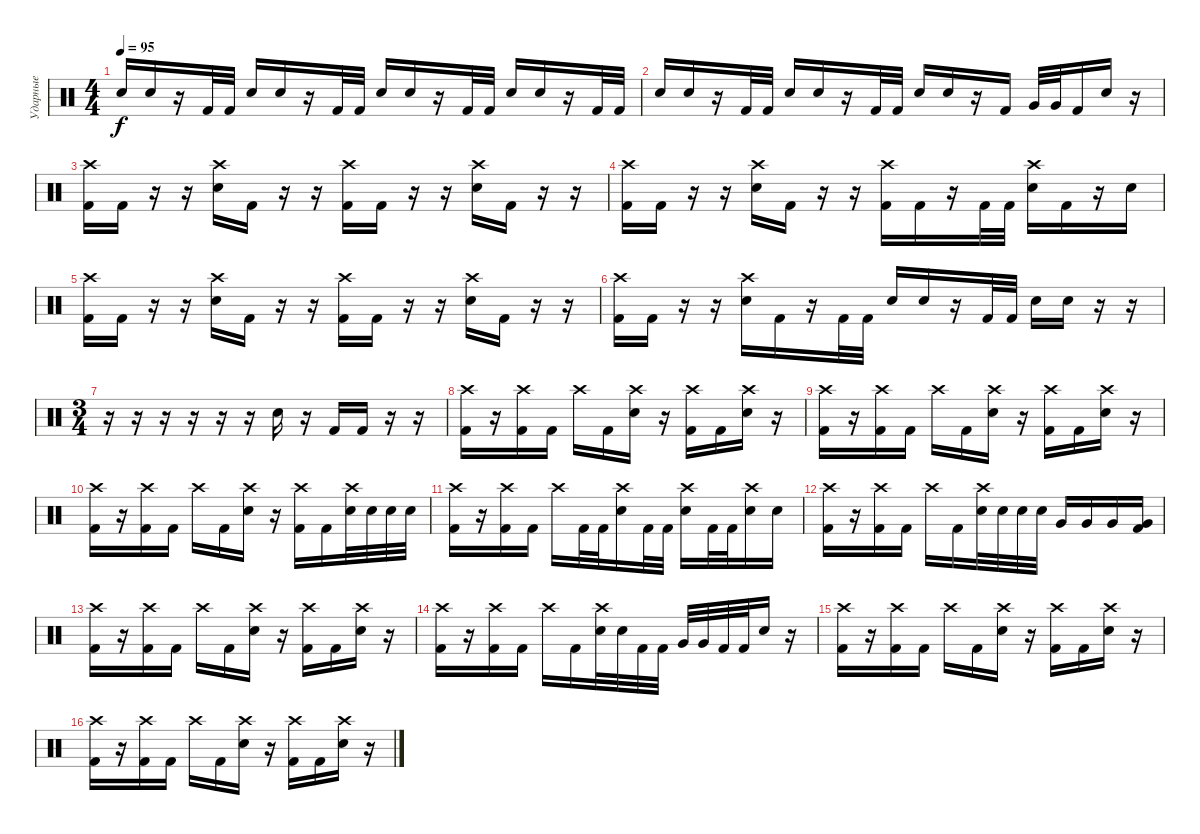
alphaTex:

\track ("Ударные" "Ударные") {instrument percussion}
\staff {score}
\articulation defaults
\ts (4 4)
\tempo 95
\clef neutral
\ks c "Electric Snare (hit)".16{dy f} "Electric Snare (hit)".16
r.16 "Kick (hit) 2".32 "Kick (hit) 2".32 "Electric Snare (hit)".16 "Electric Snare (hit)".16 r.16 "Kick (hit) 2".32 "Kick (hit) 2".32 "Electric Snare (hit)".16 "Electric Snare (hit)".16 r.16 "Kick (hit) 2".32 "Kick (hit) 2".32 "Electric Snare (hit)".16 "Electric Snare (hit)".16 r.16 "Kick (hit) 2".32 "Kick (hit) 2".32 |
"Electric Snare (hit)".16 "Electric Snare (hit)".16 r.16 "Kick (hit) 2".32 "Kick (hit) 2".32 "Electric Snare (hit)".16 "Electric Snare (hit)".16 r.16 "Kick (hit) 2".32 "Kick (hit) 2".32 "Electric Snare (hit)".16 "Electric Snare (hit)".16 r.16 "Kick (hit) 2".16 "Very Low Tom (hit)".32 "Very Low Tom (hit)".32 "Kick (hit) 2".16 "Electric Snare (hit)".16 r.16 |
("Crash high (hit)" "Kick (hit) 2").16 "Kick (hit) 2".16 r.16 r.16 ("Crash high (hit)" "Electric Snare (hit)").16 "Kick (hit) 2".16 r.16 r.16 ("Crash high (hit)" "Kick (hit) 2").16 "Kick (hit) 2".16 r.16 r.16 ("Crash high (hit)" "Electric Snare (hit)").16 "Kick (hit) 2".16 r.16 r.16 |
("Crash high (hit)" "Kick (hit) 2").16 "Kick (hit) 2".16 r.16 r.16 ("Crash high (hit)" "Electric Snare (hit)").16 "Kick (hit) 2".16 r.16 r.16 ("Crash high (hit)" "Kick (hit) 2").16 "Kick (hit) 2".16 r.16 "Kick (hit) 2".32 "Kick (hit) 2".32 ("Crash high (hit)" "Electric Snare (hit)").16 "Kick (hit) 2".16 r.16 "Electric Snare (hit)".16 |
("Crash high (hit)" "Kick (hit) 2").16 "Kick (hit) 2".16 r.16 r.16 ("Crash high (hit)" "Electric Snare (hit)").16 "Kick (hit) 2".16 r.16 r.16 ("Crash high (hit)" "Kick (hit) 2").16 "Kick (hit) 2".16 r.16 r.16 ("Crash high (hit)" "Electric Snare (hit)").16 "Kick (hit) 2".16 r.16 r.16 |
("Crash high (hit)" "Kick (hit) 2").16 "Kick (hit) 2".16 r.16 r.16 ("Crash high (hit)" "Electric Snare (hit)").16 "Kick (hit) 2".16 r.16 "Kick (hit) 2".32 "Kick (hit) 2".32 "Electric Snare (hit)".16 "Electric Snare (hit)".16 r.16 "Kick (hit) 2".32 "Kick (hit) 2".32 "Electric Snare (hit)".16 "Electric Snare (hit)".16 r.16 r.16 |
\ts (3 4)
r.16 r.16 r.16 r.16 r.16 r.16 "Electric Snare (hit)".16 r.16 "Kick (hit) 2".16 "Kick (hit) 2".16 r.16 r.16 |
("Crash high (hit)" "Kick (hit) 2").16 r.16 ("Crash high (hit)" "Kick (hit) 2").16 "Kick (hit) 2".16 "Crash high (hit)".16 "Kick (hit) 2".16 ("Crash high (hit)" "Electric Snare (hit)").16 r.16 ("Crash high (hit)" "Kick (hit) 2").16 "Kick (hit) 2".16 ("Crash high (hit)" "Electric Snare (hit)").16 r.16 |
("Crash high (hit)" "Kick (hit) 2").16 r.16 ("Crash high (hit)" "Kick (hit) 2").16 "Kick (hit) 2".16 "Crash high (hit)".16 "Kick (hit) 2".16 ("Crash high (hit)" "Electric Snare (hit)").16 r.16 ("Crash high (hit)" "Kick (hit) 2").16 "Kick (hit) 2".16 ("Crash high (hit)" "Electric Snare (hit)").16 r.16 |
("Crash high (hit)" "Kick (hit) 2").16 r.16 ("Crash high (hit)" "Kick (hit) 2").16 "Kick (hit) 2".16 "Crash high (hit)".16 "Kick (hit) 2".16 ("Crash high (hit)" "Electric Snare (hit)").16 r.16 ("Crash high (hit)" "Kick (hit) 2").16 "Kick (hit) 2".16 ("Crash high (hit)" "Electric Snare (hit)").32 "Electric Snare (hit)".32 "Electric Snare (hit)".32 "Electric Snare (hit)".32 |
("Crash high (hit)" "Kick (hit) 2").16 r.16 ("Crash high (hit)" "Kick (hit) 2").16 "Kick (hit) 2".16 "Crash high (hit)".16 "Kick (hit) 2".32 "Kick (hit) 2".32 ("Crash high (hit)" "Electric Snare (hit)").16 "Kick (hit) 2".32 "Kick (hit) 2".32 ("Crash high (hit)" "Electric Snare (hit)").16 "Kick (hit) 2".32 "Kick (hit) 2".32 ("Crash high (hit)" "Electric Snare (hit)").16 "Electric Snare (hit)".16 |
("Crash high (hit)" "Kick (hit) 2").16 r.16 ("Crash high (hit)" "Kick (hit) 2").16 "Kick (hit) 2".16 "Crash high (hit)".16 "Kick (hit) 2".16 ("Crash high (hit)" "Electric Snare (hit)").32 "Electric Snare (hit)".32 "Electric Snare (hit)".32 "Electric Snare (hit)".32 "Very Low Tom (hit)".16 "Very Low Tom (hit)".16 "Very Low Tom (hit)".16 ("Very Low Tom (hit)" "Kick (hit) 2").16 |
("Crash high (hit)" "Kick (hit) 2").16 r.16 ("Crash high (hit)" "Kick (hit) 2").16 "Kick (hit) 2".16 "Crash high (hit)".16 "Kick (hit) 2".16 ("Crash high (hit)" "Electric Snare (hit)").16 r.16 ("Crash high (hit)" "Kick (hit) 2").16 "Kick (hit) 2".16 ("Crash high (hit)" "Electric Snare (hit)").16 r.16 |
("Crash high (hit)" "Kick (hit) 2").16 r.16 ("Crash high (hit)" "Kick (hit) 2").16 "Kick (hit) 2".16 "Crash high (hit)".16 "Kick (hit) 2".16 ("Crash high (hit)" "Electric Snare (hit)").32 "Electric Snare (hit)".32 "Kick (hit) 2".32 "Kick (hit) 2".32 "Very Low Tom (hit)".32 "Very Low Tom (hit)".32 "Kick (hit) 2".32 "Kick (hit) 2".32 "Electric Snare (hit)".16 r.16 |
("Crash high (hit)" "Kick (hit) 2").16 r.16 ("Crash high (hit)" "Kick (hit) 2").16 "Kick (hit) 2".16 "Crash high (hit)".16 "Kick (hit) 2".16 ("Crash high (hit)" "Electric Snare (hit)").16 r.16 ("Crash high (hit)" "Kick (hit) 2").16 "Kick (hit) 2".16 ("Crash high (hit)" "Electric Snare (hit)").16 r.16 |
("Crash high (hit)" "Kick (hit) 2").16 r.16 ("Crash high (hit)" "Kick (hit) 2").16 "Kick (hit) 2".16 "Crash high (hit)".16 "Kick (hit) 2".16 ("Crash high (hit)" "Electric Snare (hit)").16 r.16 ("Crash high (hit)" "Kick (hit) 2").16 "Kick (hit) 2".16 ("Crash high (hit)" "Electric Snare (hit)").16 r.16
